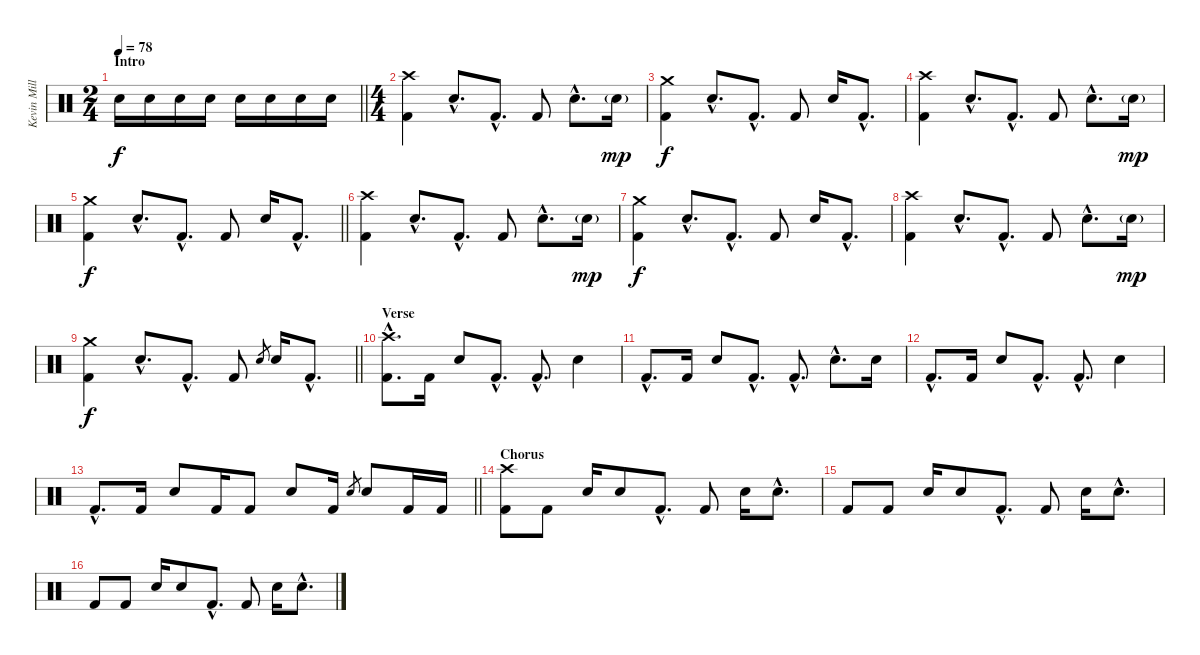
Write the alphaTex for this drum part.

\track ("Kevin Miller (Drums)" "Kevin Mill") {instrument percussion}
\staff {score}
\articulation defaults
\ts (2 4)
\section ("" "Intro")
\tempo 78
\clef neutral
\barLineRight lightlight
\ks c "Electric Snare (hit)".16{dy f} "Electric Snare (hit)".16 "Electric Snare (hit)".16 "Electric Snare (hit)".16 "Electric Snare (hit)".16 "Electric Snare (hit)".16 "Electric Snare (hit)".16 "Electric Snare (hit)".16
|
\ts (4 4)
("Crash high (hit)" "Kick (hit) 2").4 "Electric Snare (hit)"{hac}.8{d} "Kick (hit) 2"{hac}.8{d} "Kick (hit) 2".8 "Electric Snare (hit)"{hac}.8{d} "Electric Snare (hit)"{g}.16{dy mp} |
("Crash medium (hit)" "Kick (hit) 2").4{dy f} "Electric Snare (hit)"{hac}.8{d} "Kick (hit) 2"{hac}.8{d} "Kick (hit) 2".8 "Electric Snare (hit)".16 "Kick (hit) 2"{hac}.8{d} |
("Crash high (hit)" "Kick (hit) 2").4 "Electric Snare (hit)"{hac}.8{d} "Kick (hit) 2"{hac}.8{d} "Kick (hit) 2".8 "Electric Snare (hit)"{hac}.8{d} "Electric Snare (hit)"{g}.16{dy mp} |
\barLineRight lightlight
("Crash medium (hit)" "Kick (hit) 2").4{dy f} "Electric Snare (hit)"{hac}.8{d} "Kick (hit) 2"{hac}.8{d} "Kick (hit) 2".8 "Electric Snare (hit)".16 "Kick (hit) 2"{hac}.8{d} |
("Crash high (hit)" "Kick (hit) 2").4 "Electric Snare (hit)"{hac}.8{d} "Kick (hit) 2"{hac}.8{d} "Kick (hit) 2".8 "Electric Snare (hit)"{hac}.8{d} "Electric Snare (hit)"{g}.16{dy mp} |
("Crash medium (hit)" "Kick (hit) 2").4{dy f} "Electric Snare (hit)"{hac}.8{d} "Kick (hit) 2"{hac}.8{d} "Kick (hit) 2".8 "Electric Snare (hit)".16 "Kick (hit) 2"{hac}.8{d} |
("Crash high (hit)" "Kick (hit) 2").4 "Electric Snare (hit)"{hac}.8{d} "Kick (hit) 2"{hac}.8{d} "Kick (hit) 2".8 "Electric Snare (hit)"{hac}.8{d} "Electric Snare (hit)"{g}.16{dy mp} |
\barLineRight lightlight
("Crash medium (hit)" "Kick (hit) 2").4{dy f} "Electric Snare (hit)"{hac}.8{d} "Kick (hit) 2"{hac}.8{d} "Kick (hit) 2".8 "Electric Snare (hit)".8{gr} "Electric Snare (hit)".16 "Kick (hit) 2"{hac}.8{d} |
\section ("" "Verse")
("Crash high (hit)"{hac} "Kick (hit) 2"{hac}).8{d} "Kick (hit) 2".16 "Electric Snare (hit)".8 "Kick (hit) 2"{hac}.8{d} "Kick (hit) 2"{hac}.8{d} "Electric Snare (hit)".4 |
"Kick (hit) 2"{hac}.8{d} "Kick (hit) 2".16 "Electric Snare (hit)".8 "Kick (hit) 2"{hac}.8{d} "Kick (hit) 2"{hac}.8{d} "Electric Snare (hit)"{hac}.8{d} "Electric Snare (hit)".16 |
"Kick (hit) 2"{hac}.8{d} "Kick (hit) 2".16 "Electric Snare (hit)".8 "Kick (hit) 2"{hac}.8{d} "Kick (hit) 2"{hac}.8{d} "Electric Snare (hit)".4 |
\barLineRight lightlight "Kick (hit) 2"{hac}.8{d} "Kick (hit) 2".16 "Electric Snare (hit)".8 "Kick (hit) 2".16 "Kick (hit) 2".8 "Electric Snare (hit)".8 "Kick (hit) 2".16 "Electric Snare (hit)".8{gr} "Electric Snare (hit)".8 "Kick (hit) 2".16 "Kick (hit) 2".16
|
\section ("" "Chorus")
("Crash high (hit)" "Kick (hit) 2").8 "Kick (hit) 2".8 "Electric Snare (hit)".16 "Electric Snare (hit)".8 "Kick (hit) 2"{hac}.8{d} "Kick (hit) 2".8 "Electric Snare (hit)".16 "Electric Snare (hit)"{hac}.8{d} |
"Kick (hit) 2".8 "Kick (hit) 2".8 "Electric Snare (hit)".16 "Electric Snare (hit)".8 "Kick (hit) 2"{hac}.8{d} "Kick (hit) 2".8 "Electric Snare (hit)".16 "Electric Snare (hit)"{hac}.8{d} |
"Kick (hit) 2".8 "Kick (hit) 2".8 "Electric Snare (hit)".16 "Electric Snare (hit)".8 "Kick (hit) 2"{hac}.8{d} "Kick (hit) 2".8 "Electric Snare (hit)".16 "Electric Snare (hit)"{hac}.8{d}
